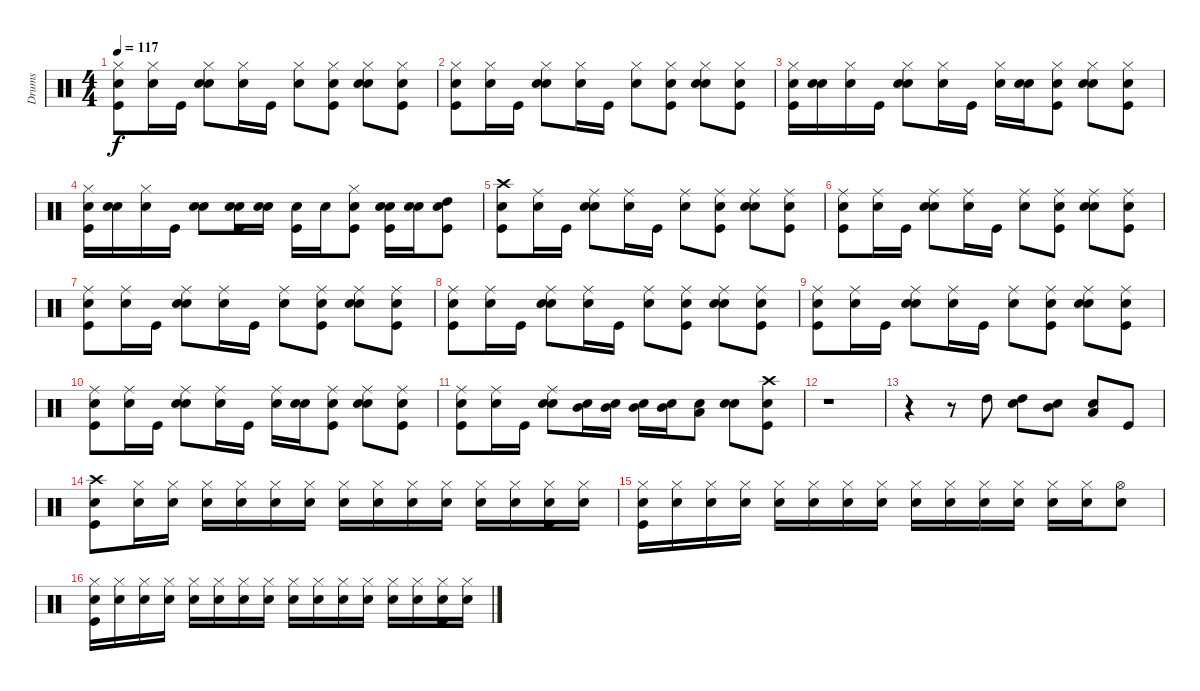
\track ("Drums" "Drums") {instrument percussion}
\staff {score}
\articulation defaults
\ts (4 4)
\tempo 117
\clef neutral
\ks c
("Snare (hit)" "Kick (hit)" "Hi-Hat (closed)").8{dy f} ("Snare (hit)" "Hi-Hat (closed)").16 "Kick (hit)".16 ("Snare (hit)" "Electric Snare (hit)" "Hi-Hat (closed)").8 ("Snare (hit)" "Hi-Hat (closed)").16 "Kick (hit)".16 ("Snare (hit)" "Hi-Hat (closed)").8 ("Snare (hit)" "Kick (hit)" "Hi-Hat (closed)").8 ("Snare (hit)" "Electric Snare (hit)" "Hi-Hat (closed)").8 ("Snare (hit)" "Kick (hit)" "Hi-Hat (closed)").8 |
("Snare (hit)" "Kick (hit)" "Hi-Hat (closed)").8 ("Snare (hit)" "Hi-Hat (closed)").16 "Kick (hit)".16 ("Snare (hit)" "Electric Snare (hit)" "Hi-Hat (closed)").8 ("Snare (hit)" "Hi-Hat (closed)").16 "Kick (hit)".16 ("Snare (hit)" "Hi-Hat (closed)").8 ("Snare (hit)" "Kick (hit)" "Hi-Hat (closed)").8 ("Snare (hit)" "Electric Snare (hit)" "Hi-Hat (closed)").8 ("Snare (hit)" "Kick (hit)" "Hi-Hat (closed)").8 |
("Snare (hit)" "Kick (hit)" "Hi-Hat (closed)").16 ("Snare (hit)" "Electric Snare (hit)").16 ("Snare (hit)" "Hi-Hat (closed)").16 "Kick (hit)".16 ("Snare (hit)" "Electric Snare (hit)" "Hi-Hat (closed)").8 ("Snare (hit)" "Hi-Hat (closed)").16 "Kick (hit)".16 ("Snare (hit)" "Hi-Hat (closed)").16 ("Snare (hit)" "Electric Snare (hit)").16 ("Snare (hit)" "Kick (hit)" "Hi-Hat (closed)").8 ("Snare (hit)" "Electric Snare (hit)" "Hi-Hat (closed)").8 ("Snare (hit)" "Kick (hit)" "Hi-Hat (closed)").8 |
("Snare (hit)" "Kick (hit)" "Hi-Hat (closed)").16 ("Snare (hit)" "Electric Snare (hit)").16 ("Snare (hit)" "Hi-Hat (closed)").16 "Kick (hit)".16 ("Snare (hit)" "Electric Snare (hit)").8 ("Snare (hit)" "Electric Snare (hit)" "Kick (hit)").16 ("Snare (hit)" "Electric Snare (hit)").16 ("Snare (hit)" "Kick (hit)").16 "Electric Snare (hit)".16 ("Snare (hit)" "Kick (hit)" "Hi-Hat (closed)").8 ("Snare (hit)" "Electric Snare (hit)" "Kick (hit)").16 ("Snare (hit)" "Electric Snare (hit)").16 ("Snare (hit)" "Kick (hit)" "High Tom (hit)").8 |
("Snare (hit)" "Kick (hit)" "Crash high (hit)").8 ("Snare (hit)" "Ride (middle)").16 "Kick (hit)".16 ("Snare (hit)" "Electric Snare (hit)" "Ride (middle)").8 ("Snare (hit)" "Ride (middle)").16 "Kick (hit)".16 ("Snare (hit)" "Ride (middle)").8 ("Snare (hit)" "Kick (hit)" "Ride (middle)").8 ("Snare (hit)" "Electric Snare (hit)" "Ride (middle)").8 ("Snare (hit)" "Kick (hit)" "Ride (middle)").8 |
("Snare (hit)" "Kick (hit)" "Ride (middle)").8 ("Snare (hit)" "Ride (middle)").16 "Kick (hit)".16 ("Snare (hit)" "Electric Snare (hit)" "Ride (middle)").8 ("Snare (hit)" "Ride (middle)").16 "Kick (hit)".16 ("Snare (hit)" "Ride (middle)").8 ("Snare (hit)" "Kick (hit)" "Ride (middle)").8 ("Snare (hit)" "Electric Snare (hit)" "Ride (middle)").8 ("Snare (hit)" "Kick (hit)" "Ride (middle)").8 |
("Snare (hit)" "Kick (hit)" "Ride (middle)").8 ("Snare (hit)" "Ride (middle)").16 "Kick (hit)".16 ("Snare (hit)" "Electric Snare (hit)" "Ride (middle)").8 ("Snare (hit)" "Ride (middle)").16 "Kick (hit)".16 ("Snare (hit)" "Ride (middle)").8 ("Snare (hit)" "Kick (hit)" "Ride (middle)").8 ("Snare (hit)" "Electric Snare (hit)" "Ride (middle)").8 ("Snare (hit)" "Kick (hit)" "Ride (middle)").8 |
("Snare (hit)" "Kick (hit)" "Ride (middle)").8 ("Snare (hit)" "Ride (middle)").16 "Kick (hit)".16 ("Snare (hit)" "Electric Snare (hit)" "Ride (middle)").8 ("Snare (hit)" "Ride (middle)").16 "Kick (hit)".16 ("Snare (hit)" "Ride (middle)").8 ("Snare (hit)" "Kick (hit)" "Ride (middle)").8 ("Snare (hit)" "Electric Snare (hit)" "Ride (middle)").8 ("Snare (hit)" "Kick (hit)" "Ride (middle)").8 |
("Snare (hit)" "Kick (hit)" "Ride (middle)").8 ("Snare (hit)" "Ride (middle)").16 "Kick (hit)".16 ("Snare (hit)" "Electric Snare (hit)" "Ride (middle)").8 ("Snare (hit)" "Ride (middle)").16 "Kick (hit)".16 ("Snare (hit)" "Ride (middle)").8 ("Snare (hit)" "Kick (hit)" "Ride (middle)").8 ("Snare (hit)" "Electric Snare (hit)" "Ride (middle)").8 ("Snare (hit)" "Kick (hit)" "Ride (middle)").8 |
("Snare (hit)" "Kick (hit)" "Ride (middle)").8 ("Snare (hit)" "Ride (middle)").16 "Kick (hit)".16 ("Snare (hit)" "Electric Snare (hit)" "Ride (middle)").8 ("Snare (hit)" "Ride (middle)").16 "Kick (hit)".16 ("Snare (hit)" "Ride (middle)").16 ("Snare (hit)" "Electric Snare (hit)").16 ("Snare (hit)" "Kick (hit)" "Ride (middle)").8 ("Snare (hit)" "Electric Snare (hit)" "Ride (middle)").8 ("Snare (hit)" "Kick (hit)" "Ride (middle)").8 |
("Snare (hit)" "Kick (hit)" "Ride (middle)").8 ("Snare (hit)" "Ride (middle)").16 "Kick (hit)".16 ("Snare (hit)" "Electric Snare (hit)" "Ride (middle)").8 ("Snare (hit)" "Mid Tom (hit)").16 ("Snare (hit)" "Mid Tom (hit)").16 ("Snare (hit)" "Mid Tom (hit)").16 ("Snare (hit)" "Mid Tom (hit)").16 ("Snare (hit)" "Low Tom (hit)").8 ("Snare (hit)" "Electric Snare (hit)").8 ("Snare (hit)" "Kick (hit)" "Crash high (hit)").8 |
r.1 |
r.4 r.8 "High Tom (hit)".8 ("Snare (hit)" "High Tom (hit)").8 ("Snare (hit)" "Mid Tom (hit)").8 ("Snare (hit)" "Low Tom (hit)").8 "Kick (hit)".8 |
("Snare (hit)" "Kick (hit)" "Crash high (hit)").8 ("Snare (hit)" "Hi-Hat (closed)").16 ("Snare (hit)" "Hi-Hat (closed)").16 ("Snare (hit)" "Hi-Hat (closed)").16 ("Snare (hit)" "Hi-Hat (closed)").16 ("Snare (hit)" "Hi-Hat (closed)").16 ("Snare (hit)" "Hi-Hat (closed)").16 ("Snare (hit)" "Hi-Hat (closed)").16 ("Snare (hit)" "Hi-Hat (closed)").16 ("Snare (hit)" "Hi-Hat (closed)").16 ("Snare (hit)" "Hi-Hat (closed)").16 ("Snare (hit)" "Hi-Hat (closed)").16 ("Snare (hit)" "Hi-Hat (closed)").16 ("Snare (hit)" "Kick (hit)" "Hi-Hat (closed)").16 ("Snare (hit)" "Hi-Hat (closed)").16 |
("Snare (hit)" "Kick (hit)" "Hi-Hat (closed)").16 ("Snare (hit)" "Hi-Hat (closed)").16 ("Snare (hit)" "Hi-Hat (closed)").16 ("Snare (hit)" "Hi-Hat (closed)").16 ("Snare (hit)" "Hi-Hat (closed)").16 ("Snare (hit)" "Hi-Hat (closed)").16 ("Snare (hit)" "Hi-Hat (closed)").16 ("Snare (hit)" "Hi-Hat (closed)").16 ("Snare (hit)" "Hi-Hat (closed)").16 ("Snare (hit)" "Hi-Hat (closed)").16 ("Snare (hit)" "Hi-Hat (closed)").16 ("Snare (hit)" "Hi-Hat (closed)").16 ("Snare (hit)" "Hi-Hat (closed)").16 ("Snare (hit)" "Hi-Hat (closed)").16 ("Snare (hit)" "Hi-Hat (open)").8 |
("Snare (hit)" "Kick (hit)" "Hi-Hat (closed)").16 ("Snare (hit)" "Hi-Hat (closed)").16 ("Snare (hit)" "Hi-Hat (closed)").16 ("Snare (hit)" "Hi-Hat (closed)").16 ("Snare (hit)" "Hi-Hat (closed)").16 ("Snare (hit)" "Hi-Hat (closed)").16 ("Snare (hit)" "Hi-Hat (closed)").16 ("Snare (hit)" "Hi-Hat (closed)").16 ("Snare (hit)" "Hi-Hat (closed)").16 ("Snare (hit)" "Hi-Hat (closed)").16 ("Snare (hit)" "Hi-Hat (closed)").16 ("Snare (hit)" "Hi-Hat (closed)").16 ("Snare (hit)" "Hi-Hat (closed)").16 ("Snare (hit)" "Hi-Hat (closed)").16 ("Snare (hit)" "Kick (hit)" "Hi-Hat (closed)").16 ("Snare (hit)" "Hi-Hat (closed)").16
